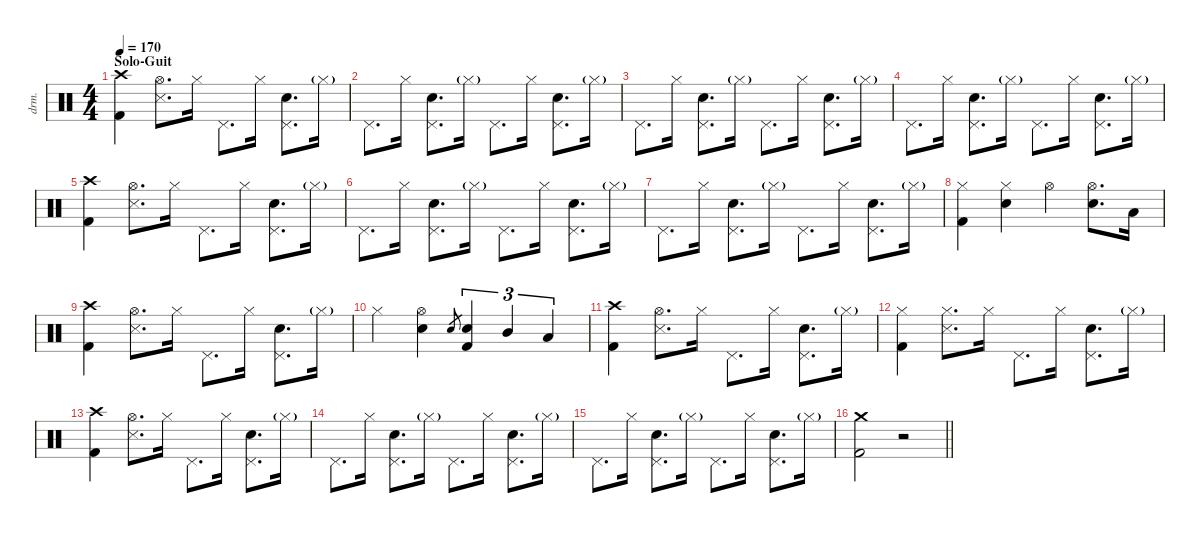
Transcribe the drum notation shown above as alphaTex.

\defaultSystemsLayout 4
\hideDynamics
\useSystemSignSeparator
\otherSystemsTrackNameOrientation horizontal
\extendBarLines
\track ("Drums" "drm.") {instrument percussion}
\staff {score}
\articulation defaults
\ts (4 4)
\section ("" "Solo-Guit")
\tempo 170
\clef neutral
\ks c
("Crash high (hit)" "Kick (hit) 2").4{dy f beam Down} ("Hi-Hat (open)" "Snare (side stick) 3").8{d beam Down} "Hi-Hat (closed)".16{beam Down} "Pedal Hi-Hat (hit)".8{d beam Down} "Hi-Hat (closed)".16{beam Down} ("Pedal Hi-Hat (hit)" "Snare (hit) 2").8{d beam Down} "Hi-Hat (closed)"{g}.16{dy mf beam Down} |
"Pedal Hi-Hat (hit)".8{d dy f beam Down} "Hi-Hat (closed)".16{beam Down} ("Pedal Hi-Hat (hit)" "Snare (hit) 2").8{d beam Down} "Hi-Hat (closed)"{g}.16{dy mf beam Down} "Pedal Hi-Hat (hit)".8{d dy f beam Down} "Hi-Hat (closed)".16{beam Down} ("Pedal Hi-Hat (hit)" "Snare (hit) 2").8{d beam Down} "Hi-Hat (closed)"{g}.16{dy mf beam Down} |
"Pedal Hi-Hat (hit)".8{d dy f beam Down} "Hi-Hat (closed)".16{beam Down} ("Pedal Hi-Hat (hit)" "Snare (hit) 2").8{d beam Down} "Hi-Hat (closed)"{g}.16{dy mf beam Down} "Pedal Hi-Hat (hit)".8{d dy f beam Down} "Hi-Hat (closed)".16{beam Down} ("Pedal Hi-Hat (hit)" "Snare (hit) 2").8{d beam Down} "Hi-Hat (closed)"{g}.16{dy mf beam Down} |
"Pedal Hi-Hat (hit)".8{d dy f beam Down} "Hi-Hat (closed)".16{beam Down} ("Pedal Hi-Hat (hit)" "Snare (hit) 2").8{d beam Down} "Hi-Hat (closed)"{g}.16{dy mf beam Down} "Pedal Hi-Hat (hit)".8{d dy f beam Down} "Hi-Hat (closed)".16{beam Down} ("Pedal Hi-Hat (hit)" "Snare (hit) 2").8{d beam Down} "Hi-Hat (closed)"{g}.16{dy mf beam Down} |
("Crash high (hit)" "Kick (hit) 2").4{dy f beam Down} ("Hi-Hat (open)" "Snare (side stick) 3").8{d beam Down} "Hi-Hat (closed)".16{beam Down} "Pedal Hi-Hat (hit)".8{d beam Down} "Hi-Hat (closed)".16{beam Down} ("Pedal Hi-Hat (hit)" "Snare (hit) 2").8{d beam Down} "Hi-Hat (closed)"{g}.16{dy mf beam Down} |
"Pedal Hi-Hat (hit)".8{d dy f beam Down} "Hi-Hat (closed)".16{beam Down} ("Pedal Hi-Hat (hit)" "Snare (hit) 2").8{d beam Down} "Hi-Hat (closed)"{g}.16{dy mf beam Down} "Pedal Hi-Hat (hit)".8{d dy f beam Down} "Hi-Hat (closed)".16{beam Down} ("Pedal Hi-Hat (hit)" "Snare (hit) 2").8{d beam Down} "Hi-Hat (closed)"{g}.16{dy mf beam Down} |
"Pedal Hi-Hat (hit)".8{d dy f beam Down} "Hi-Hat (closed)".16{beam Down} ("Pedal Hi-Hat (hit)" "Snare (hit) 2").8{d beam Down} "Hi-Hat (closed)"{g}.16{dy mf beam Down} "Pedal Hi-Hat (hit)".8{d dy f beam Down} "Hi-Hat (closed)".16{beam Down} ("Pedal Hi-Hat (hit)" "Snare (hit) 2").8{d beam Down} "Hi-Hat (closed)"{g}.16{dy mf beam Down} |
("Hi-Hat (closed)" "Kick (hit) 2").4{dy f beam Down} ("Hi-Hat (closed)" "Snare (hit) 2").4{beam Down} "Hi-Hat (open)".4{beam Down} ("Hi-Hat (open)" "Snare (hit) 2").8{d beam Down} "Low Tom (hit)".16{beam Down} |
("Crash high (hit)" "Kick (hit) 2").4{beam Down} ("Hi-Hat (open)" "Snare (side stick) 3").8{d beam Down} "Hi-Hat (closed)".16{beam Down} "Pedal Hi-Hat (hit)".8{d beam Down} "Hi-Hat (closed)".16{beam Down} ("Pedal Hi-Hat (hit)" "Snare (hit) 2").8{d beam Down} "Hi-Hat (closed)"{g}.16{dy mf beam Down} |
"Hi-Hat (closed)".4{dy f beam Down} ("Hi-Hat (open)" "Snare (hit) 2").4{beam Down} "Snare (hit) 2".8{gr dy mf beam Up} ("Snare (hit) 2" "Kick (hit) 2").4{tu (3 2) dy f beam Up} "Mid Tom (hit)".4{tu (3 2) beam Up} "Low Tom (hit)".4{tu (3 2) beam Up} |
("Crash high (hit)" "Kick (hit) 2").4{beam Down} ("Hi-Hat (open)" "Snare (side stick) 3").8{d beam Down} "Hi-Hat (closed)".16{beam Down} "Pedal Hi-Hat (hit)".8{d beam Down} "Hi-Hat (closed)".16{beam Down} ("Pedal Hi-Hat (hit)" "Snare (hit) 2").8{d beam Down} "Hi-Hat (closed)"{g}.16{dy mf beam Down} |
("Hi-Hat (closed)" "Kick (hit) 2").4{dy f beam Down} ("Hi-Hat (closed)" "Snare (side stick) 3").8{d beam Down} "Hi-Hat (closed)".16{beam Down} "Pedal Hi-Hat (hit)".8{d beam Down} "Hi-Hat (closed)".16{beam Down} ("Pedal Hi-Hat (hit)" "Snare (hit) 2").8{d beam Down} "Hi-Hat (closed)"{g}.16{dy mf beam Down} |
("Crash high (hit)" "Kick (hit) 2").4{dy f beam Down} ("Hi-Hat (open)" "Snare (side stick) 3").8{d beam Down} "Hi-Hat (closed)".16{beam Down} "Pedal Hi-Hat (hit)".8{d beam Down} "Hi-Hat (closed)".16{beam Down} ("Pedal Hi-Hat (hit)" "Snare (hit) 2").8{d beam Down} "Hi-Hat (closed)"{g}.16{dy mf beam Down} |
"Pedal Hi-Hat (hit)".8{d dy f beam Down} "Hi-Hat (closed)".16{beam Down} ("Pedal Hi-Hat (hit)" "Snare (hit) 2").8{d beam Down} "Hi-Hat (closed)"{g}.16{dy mf beam Down} "Pedal Hi-Hat (hit)".8{d dy f beam Down} "Hi-Hat (closed)".16{beam Down} ("Pedal Hi-Hat (hit)" "Snare (hit) 2").8{d beam Down} "Hi-Hat (closed)"{g}.16{dy mf beam Down} |
"Pedal Hi-Hat (hit)".8{d dy f beam Down} "Hi-Hat (closed)".16{beam Down} ("Pedal Hi-Hat (hit)" "Snare (hit) 2").8{d beam Down} "Hi-Hat (closed)"{g}.16{dy mf beam Down} "Pedal Hi-Hat (hit)".8{d dy f beam Down} "Hi-Hat (closed)".16{beam Down} ("Pedal Hi-Hat (hit)" "Snare (hit) 2").8{d beam Down} "Hi-Hat (closed)"{g}.16{dy mf beam Down} |
\barLineRight lightlight
("Crash medium (hit)" "Kick (hit) 2").2{dy f beam Down} r.2{beam Down}
